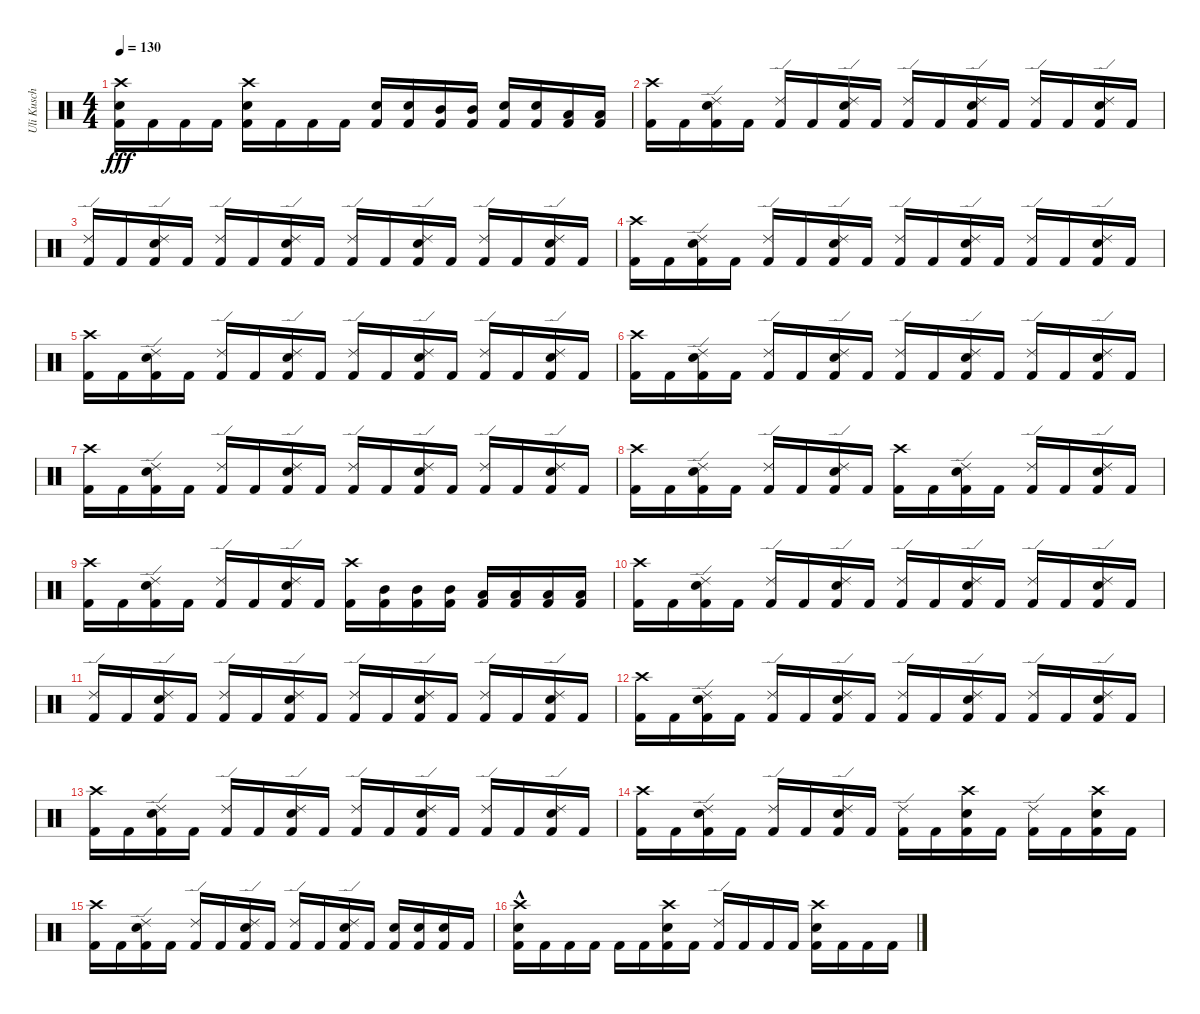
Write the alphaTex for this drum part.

\track ("Uli Kusch" "Uli Kusch") {instrument percussion}
\staff {score}
\articulation defaults
\ts (4 4)
\tempo 130
\clef neutral
\ks c
("Kick (hit) 2" "Electric Snare (hit)" "Crash high (hit)").16{dy fff} "Kick (hit) 2".16 "Kick (hit) 2".16 "Kick (hit) 2".16 ("Kick (hit) 2" "Electric Snare (hit)" "Crash high (hit)").16 "Kick (hit) 2".16 "Kick (hit) 2".16 "Kick (hit) 2".16 ("Kick (hit) 2" "Electric Snare (hit)").16 ("Kick (hit) 2" "Electric Snare (hit)").16 ("Kick (hit) 2" "Mid Tom (hit)").16 ("Kick (hit) 2" "Mid Tom (hit)").16 ("Kick (hit) 2" "Electric Snare (hit)").16 ("Kick (hit) 2" "Electric Snare (hit)").16 ("Kick (hit) 2" "Low Tom (hit)").16 ("Kick (hit) 2" "Low Tom (hit)").16 |
("Kick (hit) 2" "Crash high (hit)").16 "Kick (hit) 2".16 ("Kick (hit) 2" "Electric Snare (hit)" "Ride (edge) 2").16 "Kick (hit) 2".16 ("Kick (hit) 2" "Ride (edge) 2").16 "Kick (hit) 2".16 ("Kick (hit) 2" "Electric Snare (hit)" "Ride (edge) 2").16 "Kick (hit) 2".16 ("Kick (hit) 2" "Ride (edge) 2").16 "Kick (hit) 2".16 ("Kick (hit) 2" "Electric Snare (hit)" "Ride (edge) 2").16 "Kick (hit) 2".16 ("Kick (hit) 2" "Ride (edge) 2").16 "Kick (hit) 2".16 ("Kick (hit) 2" "Electric Snare (hit)" "Ride (edge) 2").16 "Kick (hit) 2".16 |
("Kick (hit) 2" "Ride (edge) 2").16 "Kick (hit) 2".16 ("Kick (hit) 2" "Electric Snare (hit)" "Ride (edge) 2").16 "Kick (hit) 2".16 ("Kick (hit) 2" "Ride (edge) 2").16 "Kick (hit) 2".16 ("Kick (hit) 2" "Electric Snare (hit)" "Ride (edge) 2").16 "Kick (hit) 2".16 ("Kick (hit) 2" "Ride (edge) 2").16 "Kick (hit) 2".16 ("Kick (hit) 2" "Electric Snare (hit)" "Ride (edge) 2").16 "Kick (hit) 2".16 ("Kick (hit) 2" "Ride (edge) 2").16 "Kick (hit) 2".16 ("Kick (hit) 2" "Electric Snare (hit)" "Ride (edge) 2").16 "Kick (hit) 2".16 |
("Kick (hit) 2" "Crash high (hit)").16 "Kick (hit) 2".16 ("Kick (hit) 2" "Electric Snare (hit)" "Ride (edge) 2").16 "Kick (hit) 2".16 ("Kick (hit) 2" "Ride (edge) 2").16 "Kick (hit) 2".16 ("Kick (hit) 2" "Electric Snare (hit)" "Ride (edge) 2").16 "Kick (hit) 2".16 ("Kick (hit) 2" "Ride (edge) 2").16 "Kick (hit) 2".16 ("Kick (hit) 2" "Electric Snare (hit)" "Ride (edge) 2").16 "Kick (hit) 2".16 ("Kick (hit) 2" "Ride (edge) 2").16 "Kick (hit) 2".16 ("Kick (hit) 2" "Electric Snare (hit)" "Ride (edge) 2").16 "Kick (hit) 2".16 |
("Kick (hit) 2" "Crash high (hit)").16 "Kick (hit) 2".16 ("Kick (hit) 2" "Electric Snare (hit)" "Ride (edge) 2").16 "Kick (hit) 2".16 ("Kick (hit) 2" "Ride (edge) 2").16 "Kick (hit) 2".16 ("Kick (hit) 2" "Electric Snare (hit)" "Ride (edge) 2").16 "Kick (hit) 2".16 ("Kick (hit) 2" "Ride (edge) 2").16 "Kick (hit) 2".16 ("Kick (hit) 2" "Electric Snare (hit)" "Ride (edge) 2").16 "Kick (hit) 2".16 ("Kick (hit) 2" "Ride (edge) 2").16 "Kick (hit) 2".16 ("Kick (hit) 2" "Electric Snare (hit)" "Ride (edge) 2").16 "Kick (hit) 2".16 |
("Kick (hit) 2" "Crash high (hit)").16 "Kick (hit) 2".16 ("Kick (hit) 2" "Electric Snare (hit)" "Ride (edge) 2").16 "Kick (hit) 2".16 ("Kick (hit) 2" "Ride (edge) 2").16 "Kick (hit) 2".16 ("Kick (hit) 2" "Electric Snare (hit)" "Ride (edge) 2").16 "Kick (hit) 2".16 ("Kick (hit) 2" "Ride (edge) 2").16 "Kick (hit) 2".16 ("Kick (hit) 2" "Electric Snare (hit)" "Ride (edge) 2").16 "Kick (hit) 2".16 ("Kick (hit) 2" "Ride (edge) 2").16 "Kick (hit) 2".16 ("Kick (hit) 2" "Electric Snare (hit)" "Ride (edge) 2").16 "Kick (hit) 2".16 |
("Kick (hit) 2" "Crash high (hit)").16 "Kick (hit) 2".16 ("Kick (hit) 2" "Electric Snare (hit)" "Ride (edge) 2").16 "Kick (hit) 2".16 ("Kick (hit) 2" "Ride (edge) 2").16 "Kick (hit) 2".16 ("Kick (hit) 2" "Electric Snare (hit)" "Ride (edge) 2").16 "Kick (hit) 2".16 ("Kick (hit) 2" "Ride (edge) 2").16 "Kick (hit) 2".16 ("Kick (hit) 2" "Electric Snare (hit)" "Ride (edge) 2").16 "Kick (hit) 2".16 ("Kick (hit) 2" "Ride (edge) 2").16 "Kick (hit) 2".16 ("Kick (hit) 2" "Electric Snare (hit)" "Ride (edge) 2").16 "Kick (hit) 2".16 |
("Kick (hit) 2" "Crash high (hit)").16 "Kick (hit) 2".16 ("Kick (hit) 2" "Electric Snare (hit)" "Ride (edge) 2").16 "Kick (hit) 2".16 ("Kick (hit) 2" "Ride (edge) 2").16 "Kick (hit) 2".16 ("Kick (hit) 2" "Electric Snare (hit)" "Ride (edge) 2").16 "Kick (hit) 2".16 ("Kick (hit) 2" "Crash high (hit)").16 "Kick (hit) 2".16 ("Kick (hit) 2" "Electric Snare (hit)" "Ride (edge) 2").16 "Kick (hit) 2".16 ("Kick (hit) 2" "Ride (edge) 2").16 "Kick (hit) 2".16 ("Kick (hit) 2" "Electric Snare (hit)" "Ride (edge) 2").16 "Kick (hit) 2".16 |
("Kick (hit) 2" "Crash high (hit)").16 "Kick (hit) 2".16 ("Kick (hit) 2" "Electric Snare (hit)" "Ride (edge) 2").16 "Kick (hit) 2".16 ("Kick (hit) 2" "Ride (edge) 2").16 "Kick (hit) 2".16 ("Kick (hit) 2" "Electric Snare (hit)" "Ride (edge) 2").16 "Kick (hit) 2".16 ("Kick (hit) 2" "Crash high (hit)").16 ("Kick (hit) 2" "Mid Tom (hit)").16 ("Kick (hit) 2" "Mid Tom (hit)").16 ("Kick (hit) 2" "Mid Tom (hit)").16 ("Kick (hit) 2" "Low Tom (hit)").16 ("Kick (hit) 2" "Low Tom (hit)").16 ("Kick (hit) 2" "Low Tom (hit)").16 ("Kick (hit) 2" "Low Tom (hit)").16 |
("Kick (hit) 2" "Crash high (hit)").16 "Kick (hit) 2".16 ("Kick (hit) 2" "Electric Snare (hit)" "Ride (edge) 2").16 "Kick (hit) 2".16 ("Kick (hit) 2" "Ride (edge) 2").16 "Kick (hit) 2".16 ("Kick (hit) 2" "Electric Snare (hit)" "Ride (edge) 2").16 "Kick (hit) 2".16 ("Kick (hit) 2" "Ride (edge) 2").16 "Kick (hit) 2".16 ("Kick (hit) 2" "Electric Snare (hit)" "Ride (edge) 2").16 "Kick (hit) 2".16 ("Kick (hit) 2" "Ride (edge) 2").16 "Kick (hit) 2".16 ("Kick (hit) 2" "Electric Snare (hit)" "Ride (edge) 2").16 "Kick (hit) 2".16 |
("Kick (hit) 2" "Ride (edge) 2").16 "Kick (hit) 2".16 ("Kick (hit) 2" "Electric Snare (hit)" "Ride (edge) 2").16 "Kick (hit) 2".16 ("Kick (hit) 2" "Ride (edge) 2").16 "Kick (hit) 2".16 ("Kick (hit) 2" "Electric Snare (hit)" "Ride (edge) 2").16 "Kick (hit) 2".16 ("Kick (hit) 2" "Ride (edge) 2").16 "Kick (hit) 2".16 ("Kick (hit) 2" "Electric Snare (hit)" "Ride (edge) 2").16 "Kick (hit) 2".16 ("Kick (hit) 2" "Ride (edge) 2").16 "Kick (hit) 2".16 ("Kick (hit) 2" "Electric Snare (hit)" "Ride (edge) 2").16 "Kick (hit) 2".16 |
("Kick (hit) 2" "Crash high (hit)").16 "Kick (hit) 2".16 ("Kick (hit) 2" "Electric Snare (hit)" "Ride (edge) 2").16 "Kick (hit) 2".16 ("Kick (hit) 2" "Ride (edge) 2").16 "Kick (hit) 2".16 ("Kick (hit) 2" "Electric Snare (hit)" "Ride (edge) 2").16 "Kick (hit) 2".16 ("Kick (hit) 2" "Ride (edge) 2").16 "Kick (hit) 2".16 ("Kick (hit) 2" "Electric Snare (hit)" "Ride (edge) 2").16 "Kick (hit) 2".16 ("Kick (hit) 2" "Ride (edge) 2").16 "Kick (hit) 2".16 ("Kick (hit) 2" "Electric Snare (hit)" "Ride (edge) 2").16 "Kick (hit) 2".16 |
("Kick (hit) 2" "Crash high (hit)").16 "Kick (hit) 2".16 ("Kick (hit) 2" "Electric Snare (hit)" "Ride (edge) 2").16 "Kick (hit) 2".16 ("Kick (hit) 2" "Ride (edge) 2").16 "Kick (hit) 2".16 ("Kick (hit) 2" "Electric Snare (hit)" "Ride (edge) 2").16 "Kick (hit) 2".16 ("Kick (hit) 2" "Ride (edge) 2").16 "Kick (hit) 2".16 ("Kick (hit) 2" "Electric Snare (hit)" "Ride (edge) 2").16 "Kick (hit) 2".16 ("Kick (hit) 2" "Ride (edge) 2").16 "Kick (hit) 2".16 ("Kick (hit) 2" "Electric Snare (hit)" "Ride (edge) 2").16 "Kick (hit) 2".16 |
("Kick (hit) 2" "Crash high (hit)").16 "Kick (hit) 2".16 ("Kick (hit) 2" "Electric Snare (hit)" "Ride (edge) 2").16 "Kick (hit) 2".16 ("Kick (hit) 2" "Ride (edge) 2").16 "Kick (hit) 2".16 ("Kick (hit) 2" "Electric Snare (hit)" "Ride (edge) 2").16 "Kick (hit) 2".16 ("Kick (hit) 2" "Ride (edge) 2").16 "Kick (hit) 2".16 ("Kick (hit) 2" "Electric Snare (hit)" "Crash high (hit)").16 "Kick (hit) 2".16 ("Kick (hit) 2" "Ride (edge) 2").16 "Kick (hit) 2".16 ("Kick (hit) 2" "Electric Snare (hit)" "Crash high (hit)").16 "Kick (hit) 2".16 |
("Kick (hit) 2" "Crash high (hit)").16 "Kick (hit) 2".16 ("Kick (hit) 2" "Electric Snare (hit)" "Ride (edge) 2").16 "Kick (hit) 2".16 ("Kick (hit) 2" "Ride (edge) 2").16 "Kick (hit) 2".16 ("Kick (hit) 2" "Electric Snare (hit)" "Ride (edge) 2").16 "Kick (hit) 2".16 ("Kick (hit) 2" "Ride (edge) 2").16 "Kick (hit) 2".16 ("Kick (hit) 2" "Electric Snare (hit)" "Ride (edge) 2").16 "Kick (hit) 2".16 ("Kick (hit) 2" "Electric Snare (hit)").16 ("Kick (hit) 2" "Electric Snare (hit)").16 ("Kick (hit) 2" "Electric Snare (hit)").16 "Kick (hit) 2".16 |
("Kick (hit) 2" "Crash high (hit)" "Electric Snare (hit)"{hac}).16 "Kick (hit) 2".16 "Kick (hit) 2".16 "Kick (hit) 2".16 "Kick (hit) 2".16 "Kick (hit) 2".16 ("Kick (hit) 2" "Crash high (hit)" "Electric Snare (hit)").16 "Kick (hit) 2".16 ("Kick (hit) 2" "Ride (edge) 2").16 "Kick (hit) 2".16 "Kick (hit) 2".16 "Kick (hit) 2".16 ("Kick (hit) 2" "Electric Snare (hit)" "Crash high (hit)").16 "Kick (hit) 2".16 "Kick (hit) 2".16 "Kick (hit) 2".16
